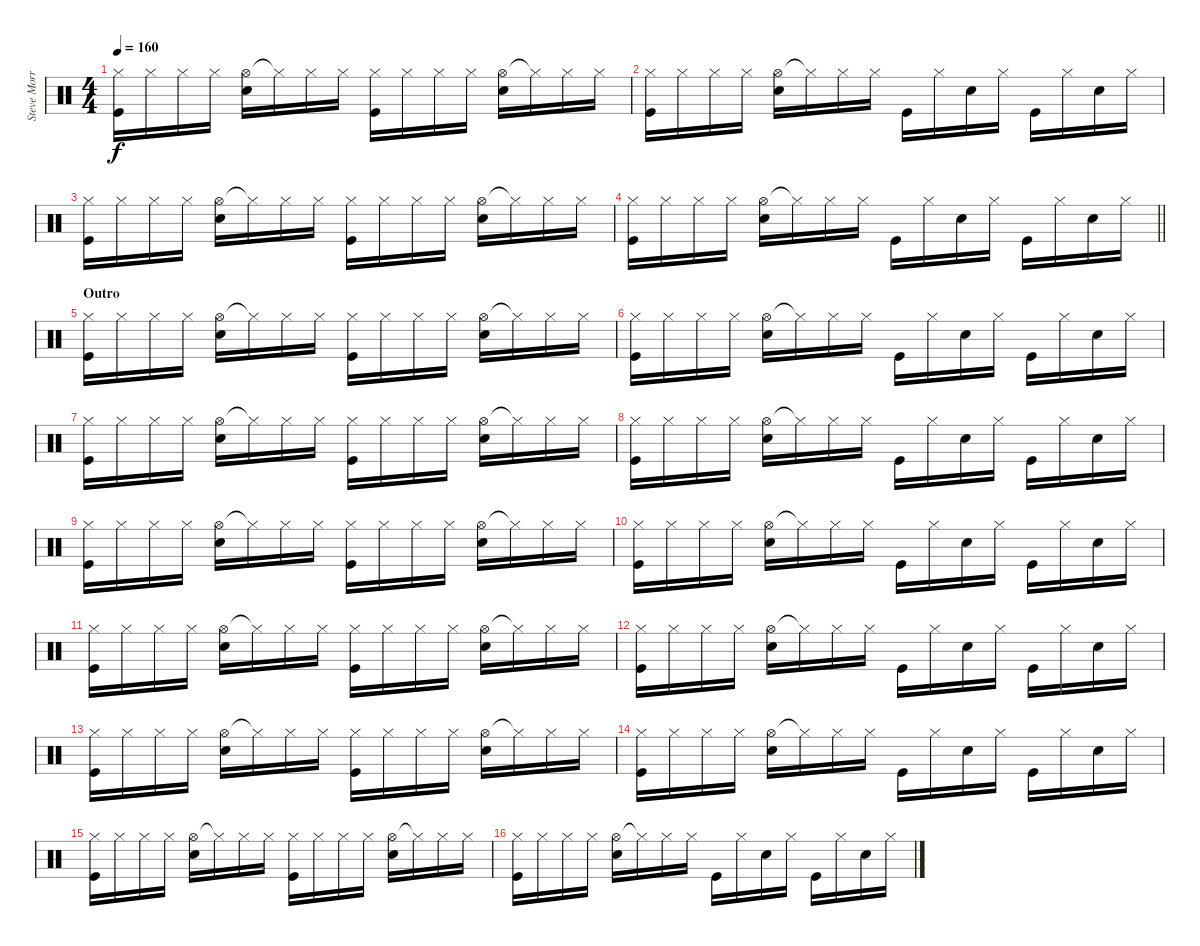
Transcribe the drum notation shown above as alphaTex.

\track ("Steve Morris" "Steve Morr") {instrument percussion}
\staff {score}
\articulation defaults
\ts (4 4)
\tempo 160
\clef neutral
\ks c
("Hi-Hat (closed)" "Kick (hit)").16{dy f} "Hi-Hat (closed)".16 "Hi-Hat (closed)".16 "Hi-Hat (closed)".16 ("Hi-Hat (open)" "Electric Snare (hit)").16 "Hi-Hat (closed)"{t}.16 "Hi-Hat (closed)".16 "Hi-Hat (closed)".16 ("Hi-Hat (closed)" "Kick (hit)").16 "Hi-Hat (closed)".16 "Hi-Hat (closed)".16 "Hi-Hat (closed)".16 ("Hi-Hat (open)" "Electric Snare (hit)").16 "Hi-Hat (closed)"{t}.16 "Hi-Hat (closed)".16 "Hi-Hat (closed)".16 |
("Hi-Hat (closed)" "Kick (hit)").16 "Hi-Hat (closed)".16 "Hi-Hat (closed)".16 "Hi-Hat (closed)".16 ("Hi-Hat (open)" "Electric Snare (hit)").16 "Hi-Hat (closed)"{t}.16 "Hi-Hat (closed)".16 "Hi-Hat (closed)".16 "Kick (hit)".16 "Hi-Hat (closed)".16 "Electric Snare (hit)".16 "Hi-Hat (closed)".16 "Kick (hit)".16 "Hi-Hat (closed)".16 "Electric Snare (hit)".16 "Hi-Hat (closed)".16 |
("Hi-Hat (closed)" "Kick (hit)").16 "Hi-Hat (closed)".16 "Hi-Hat (closed)".16 "Hi-Hat (closed)".16 ("Hi-Hat (open)" "Electric Snare (hit)").16 "Hi-Hat (closed)"{t}.16 "Hi-Hat (closed)".16 "Hi-Hat (closed)".16 ("Hi-Hat (closed)" "Kick (hit)").16 "Hi-Hat (closed)".16 "Hi-Hat (closed)".16 "Hi-Hat (closed)".16 ("Hi-Hat (open)" "Electric Snare (hit)").16 "Hi-Hat (closed)"{t}.16 "Hi-Hat (closed)".16 "Hi-Hat (closed)".16 |
\barLineRight lightlight
("Hi-Hat (closed)" "Kick (hit)").16 "Hi-Hat (closed)".16 "Hi-Hat (closed)".16 "Hi-Hat (closed)".16 ("Hi-Hat (open)" "Electric Snare (hit)").16 "Hi-Hat (closed)"{t}.16 "Hi-Hat (closed)".16 "Hi-Hat (closed)".16 "Kick (hit)".16 "Hi-Hat (closed)".16 "Electric Snare (hit)".16 "Hi-Hat (closed)".16 "Kick (hit)".16 "Hi-Hat (closed)".16 "Electric Snare (hit)".16 "Hi-Hat (closed)".16 |
\section ("" "Outro")
("Hi-Hat (closed)" "Kick (hit)").16 "Hi-Hat (closed)".16 "Hi-Hat (closed)".16 "Hi-Hat (closed)".16 ("Hi-Hat (open)" "Electric Snare (hit)").16 "Hi-Hat (closed)"{t}.16 "Hi-Hat (closed)".16 "Hi-Hat (closed)".16 ("Hi-Hat (closed)" "Kick (hit)").16 "Hi-Hat (closed)".16 "Hi-Hat (closed)".16 "Hi-Hat (closed)".16 ("Hi-Hat (open)" "Electric Snare (hit)").16 "Hi-Hat (closed)"{t}.16 "Hi-Hat (closed)".16 "Hi-Hat (closed)".16 |
("Hi-Hat (closed)" "Kick (hit)").16 "Hi-Hat (closed)".16 "Hi-Hat (closed)".16 "Hi-Hat (closed)".16 ("Hi-Hat (open)" "Electric Snare (hit)").16 "Hi-Hat (closed)"{t}.16 "Hi-Hat (closed)".16 "Hi-Hat (closed)".16 "Kick (hit)".16 "Hi-Hat (closed)".16 "Electric Snare (hit)".16 "Hi-Hat (closed)".16 "Kick (hit)".16 "Hi-Hat (closed)".16 "Electric Snare (hit)".16 "Hi-Hat (closed)".16 |
("Hi-Hat (closed)" "Kick (hit)").16 "Hi-Hat (closed)".16 "Hi-Hat (closed)".16 "Hi-Hat (closed)".16 ("Hi-Hat (open)" "Electric Snare (hit)").16 "Hi-Hat (closed)"{t}.16 "Hi-Hat (closed)".16 "Hi-Hat (closed)".16 ("Hi-Hat (closed)" "Kick (hit)").16 "Hi-Hat (closed)".16 "Hi-Hat (closed)".16 "Hi-Hat (closed)".16 ("Hi-Hat (open)" "Electric Snare (hit)").16 "Hi-Hat (closed)"{t}.16 "Hi-Hat (closed)".16 "Hi-Hat (closed)".16 |
("Hi-Hat (closed)" "Kick (hit)").16 "Hi-Hat (closed)".16 "Hi-Hat (closed)".16 "Hi-Hat (closed)".16 ("Hi-Hat (open)" "Electric Snare (hit)").16 "Hi-Hat (closed)"{t}.16 "Hi-Hat (closed)".16 "Hi-Hat (closed)".16 "Kick (hit)".16 "Hi-Hat (closed)".16 "Electric Snare (hit)".16 "Hi-Hat (closed)".16 "Kick (hit)".16 "Hi-Hat (closed)".16 "Electric Snare (hit)".16 "Hi-Hat (closed)".16 |
("Hi-Hat (closed)" "Kick (hit)").16 "Hi-Hat (closed)".16 "Hi-Hat (closed)".16 "Hi-Hat (closed)".16 ("Hi-Hat (open)" "Electric Snare (hit)").16 "Hi-Hat (closed)"{t}.16 "Hi-Hat (closed)".16 "Hi-Hat (closed)".16 ("Hi-Hat (closed)" "Kick (hit)").16 "Hi-Hat (closed)".16 "Hi-Hat (closed)".16 "Hi-Hat (closed)".16 ("Hi-Hat (open)" "Electric Snare (hit)").16 "Hi-Hat (closed)"{t}.16 "Hi-Hat (closed)".16 "Hi-Hat (closed)".16 |
("Hi-Hat (closed)" "Kick (hit)").16 "Hi-Hat (closed)".16 "Hi-Hat (closed)".16 "Hi-Hat (closed)".16 ("Hi-Hat (open)" "Electric Snare (hit)").16 "Hi-Hat (closed)"{t}.16 "Hi-Hat (closed)".16 "Hi-Hat (closed)".16 "Kick (hit)".16 "Hi-Hat (closed)".16 "Electric Snare (hit)".16 "Hi-Hat (closed)".16 "Kick (hit)".16 "Hi-Hat (closed)".16 "Electric Snare (hit)".16 "Hi-Hat (closed)".16 |
("Hi-Hat (closed)" "Kick (hit)").16 "Hi-Hat (closed)".16 "Hi-Hat (closed)".16 "Hi-Hat (closed)".16 ("Hi-Hat (open)" "Electric Snare (hit)").16 "Hi-Hat (closed)"{t}.16 "Hi-Hat (closed)".16 "Hi-Hat (closed)".16 ("Hi-Hat (closed)" "Kick (hit)").16 "Hi-Hat (closed)".16 "Hi-Hat (closed)".16 "Hi-Hat (closed)".16 ("Hi-Hat (open)" "Electric Snare (hit)").16 "Hi-Hat (closed)"{t}.16 "Hi-Hat (closed)".16 "Hi-Hat (closed)".16 |
("Hi-Hat (closed)" "Kick (hit)").16 "Hi-Hat (closed)".16 "Hi-Hat (closed)".16 "Hi-Hat (closed)".16 ("Hi-Hat (open)" "Electric Snare (hit)").16 "Hi-Hat (closed)"{t}.16 "Hi-Hat (closed)".16 "Hi-Hat (closed)".16 "Kick (hit)".16 "Hi-Hat (closed)".16 "Electric Snare (hit)".16 "Hi-Hat (closed)".16 "Kick (hit)".16 "Hi-Hat (closed)".16 "Electric Snare (hit)".16 "Hi-Hat (closed)".16 |
("Hi-Hat (closed)" "Kick (hit)").16 "Hi-Hat (closed)".16 "Hi-Hat (closed)".16 "Hi-Hat (closed)".16 ("Hi-Hat (open)" "Electric Snare (hit)").16 "Hi-Hat (closed)"{t}.16 "Hi-Hat (closed)".16 "Hi-Hat (closed)".16 ("Hi-Hat (closed)" "Kick (hit)").16 "Hi-Hat (closed)".16 "Hi-Hat (closed)".16 "Hi-Hat (closed)".16 ("Hi-Hat (open)" "Electric Snare (hit)").16 "Hi-Hat (closed)"{t}.16 "Hi-Hat (closed)".16 "Hi-Hat (closed)".16 |
("Hi-Hat (closed)" "Kick (hit)").16 "Hi-Hat (closed)".16 "Hi-Hat (closed)".16 "Hi-Hat (closed)".16 ("Hi-Hat (open)" "Electric Snare (hit)").16 "Hi-Hat (closed)"{t}.16 "Hi-Hat (closed)".16 "Hi-Hat (closed)".16 "Kick (hit)".16 "Hi-Hat (closed)".16 "Electric Snare (hit)".16 "Hi-Hat (closed)".16 "Kick (hit)".16 "Hi-Hat (closed)".16 "Electric Snare (hit)".16 "Hi-Hat (closed)".16 |
("Hi-Hat (closed)" "Kick (hit)").16 "Hi-Hat (closed)".16 "Hi-Hat (closed)".16 "Hi-Hat (closed)".16 ("Hi-Hat (open)" "Electric Snare (hit)").16 "Hi-Hat (closed)"{t}.16 "Hi-Hat (closed)".16 "Hi-Hat (closed)".16 ("Hi-Hat (closed)" "Kick (hit)").16 "Hi-Hat (closed)".16 "Hi-Hat (closed)".16 "Hi-Hat (closed)".16 ("Hi-Hat (open)" "Electric Snare (hit)").16 "Hi-Hat (closed)"{t}.16 "Hi-Hat (closed)".16 "Hi-Hat (closed)".16 |
("Hi-Hat (closed)" "Kick (hit)").16 "Hi-Hat (closed)".16 "Hi-Hat (closed)".16 "Hi-Hat (closed)".16 ("Hi-Hat (open)" "Electric Snare (hit)").16 "Hi-Hat (closed)"{t}.16 "Hi-Hat (closed)".16 "Hi-Hat (closed)".16 "Kick (hit)".16 "Hi-Hat (closed)".16 "Electric Snare (hit)".16 "Hi-Hat (closed)".16 "Kick (hit)".16 "Hi-Hat (closed)".16 "Electric Snare (hit)".16 "Hi-Hat (closed)".16
